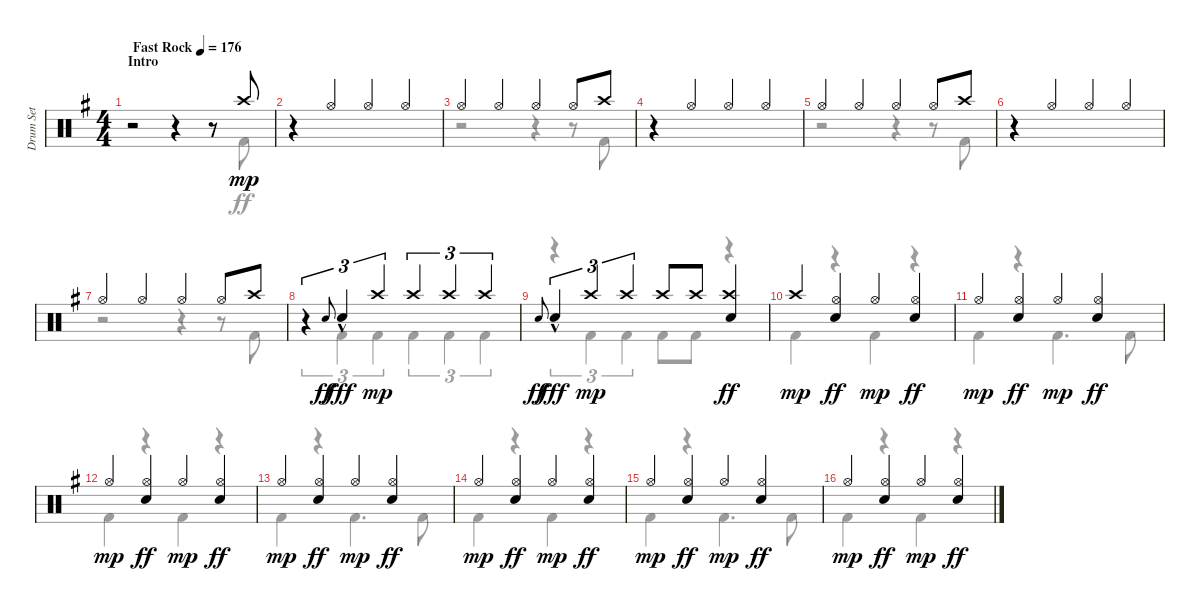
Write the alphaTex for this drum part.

\track ("Drum Set" "Drum Set") {instrument percussion}
\staff {score}
\articulation defaults
\voice
\ts (4 4)
\section ("" "Intro")
\tempo (176 "Fast Rock")
\clef neutral
\ks eminor
r.2{dy mp} r.4 r.8 "Crash high (hit)".8 |
r.4 "Hi-Hat (open)".4{beam Up} "Hi-Hat (open)".4{beam Up} "Hi-Hat (open)".4{beam Up} |
"Hi-Hat (open)".4 "Hi-Hat (open)".4 "Hi-Hat (open)".4 "Hi-Hat (open)".8 "Crash high (hit)".8 |
r.4 "Hi-Hat (open)".4{beam Up} "Hi-Hat (open)".4{beam Up} "Hi-Hat (open)".4{beam Up} |
"Hi-Hat (open)".4 "Hi-Hat (open)".4 "Hi-Hat (open)".4 "Hi-Hat (open)".8 "Crash high (hit)".8 |
r.4 "Hi-Hat (open)".4{beam Up} "Hi-Hat (open)".4{beam Up} "Hi-Hat (open)".4{beam Up} |
"Hi-Hat (open)".4 "Hi-Hat (open)".4 "Hi-Hat (open)".4 "Hi-Hat (open)".8 "Crash high (hit)".8 |
r.4{tu (3 2)} "Electric Snare (hit)".8{gr onbeat dy ff} "Electric Snare (hit)"{hac}.4{tu (3 2) dy fff} "Crash high (hit)".4{tu (3 2) dy mp} "Crash high (hit)".4{tu (3 2)} "Crash high (hit)".4{tu (3 2)} "Crash high (hit)".4{tu (3 2)} |
"Electric Snare (hit)".8{gr onbeat dy ff} "Electric Snare (hit)"{hac}.4{tu (3 2) dy fff} "Crash high (hit)".4{tu (3 2) dy mp} "Crash high (hit)".4{tu (3 2)} "Crash high (hit)".8 "Crash high (hit)".8 ("Crash high (hit)" "Electric Snare (hit)").4{dy ff} |
"Crash high (hit)".4{dy mp} ("Hi-Hat (open)" "Electric Snare (hit)").4{dy ff} "Hi-Hat (open)".4{dy mp} ("Hi-Hat (open)" "Electric Snare (hit)").4{dy ff} |
"Hi-Hat (open)".4{dy mp} ("Hi-Hat (open)" "Electric Snare (hit)").4{dy ff} "Hi-Hat (open)".4{dy mp} ("Hi-Hat (open)" "Electric Snare (hit)").4{dy ff} |
"Hi-Hat (open)".4{dy mp} ("Hi-Hat (open)" "Electric Snare (hit)").4{dy ff} "Hi-Hat (open)".4{dy mp} ("Hi-Hat (open)" "Electric Snare (hit)").4{dy ff} |
"Hi-Hat (open)".4{dy mp} ("Hi-Hat (open)" "Electric Snare (hit)").4{dy ff} "Hi-Hat (open)".4{dy mp} ("Hi-Hat (open)" "Electric Snare (hit)").4{dy ff} |
"Hi-Hat (open)".4{dy mp} ("Hi-Hat (open)" "Electric Snare (hit)").4{dy ff} "Hi-Hat (open)".4{dy mp} ("Hi-Hat (open)" "Electric Snare (hit)").4{dy ff} |
"Hi-Hat (open)".4{dy mp} ("Hi-Hat (open)" "Electric Snare (hit)").4{dy ff} "Hi-Hat (open)".4{dy mp} ("Hi-Hat (open)" "Electric Snare (hit)").4{dy ff} |
"Hi-Hat (open)".4{dy mp} ("Hi-Hat (open)" "Electric Snare (hit)").4{dy ff} "Hi-Hat (open)".4{dy mp} ("Hi-Hat (open)" "Electric Snare (hit)").4{dy ff}
\voice
\clef neutral
\ottava regular
\simile none
\ks eminor
r.2{dy ff} r.4 r.8 "Kick (hit) 2".8 |
|
r.2 r.4 r.8 "Kick (hit) 2".8 |
|
r.2 r.4 r.8 "Kick (hit) 2".8 |
|
r.2 r.4 r.8 "Kick (hit) 2".8 |
r.4{tu (3 2)} "Kick (hit) 2".4{tu (3 2)} "Kick (hit) 2".4{tu (3 2)} "Kick (hit) 2".4{tu (3 2)} "Kick (hit) 2".4{tu (3 2)} "Kick (hit) 2".4{tu (3 2)} |
r.4{tu (3 2)} "Kick (hit) 2".4{tu (3 2)} "Kick (hit) 2".4{tu (3 2)} "Kick (hit) 2".8 "Kick (hit) 2".8 r.4 |
"Kick (hit) 2".4 r.4 "Kick (hit) 2".4 r.4 |
"Kick (hit) 2".4 r.4 "Kick (hit) 2".4{d} "Kick (hit) 2".8 |
"Kick (hit) 2".4 r.4 "Kick (hit) 2".4 r.4 |
"Kick (hit) 2".4 r.4 "Kick (hit) 2".4{d} "Kick (hit) 2".8 |
"Kick (hit) 2".4 r.4 "Kick (hit) 2".4 r.4 |
"Kick (hit) 2".4 r.4 "Kick (hit) 2".4{d} "Kick (hit) 2".8 |
"Kick (hit) 2".4 r.4 "Kick (hit) 2".4 r.4
